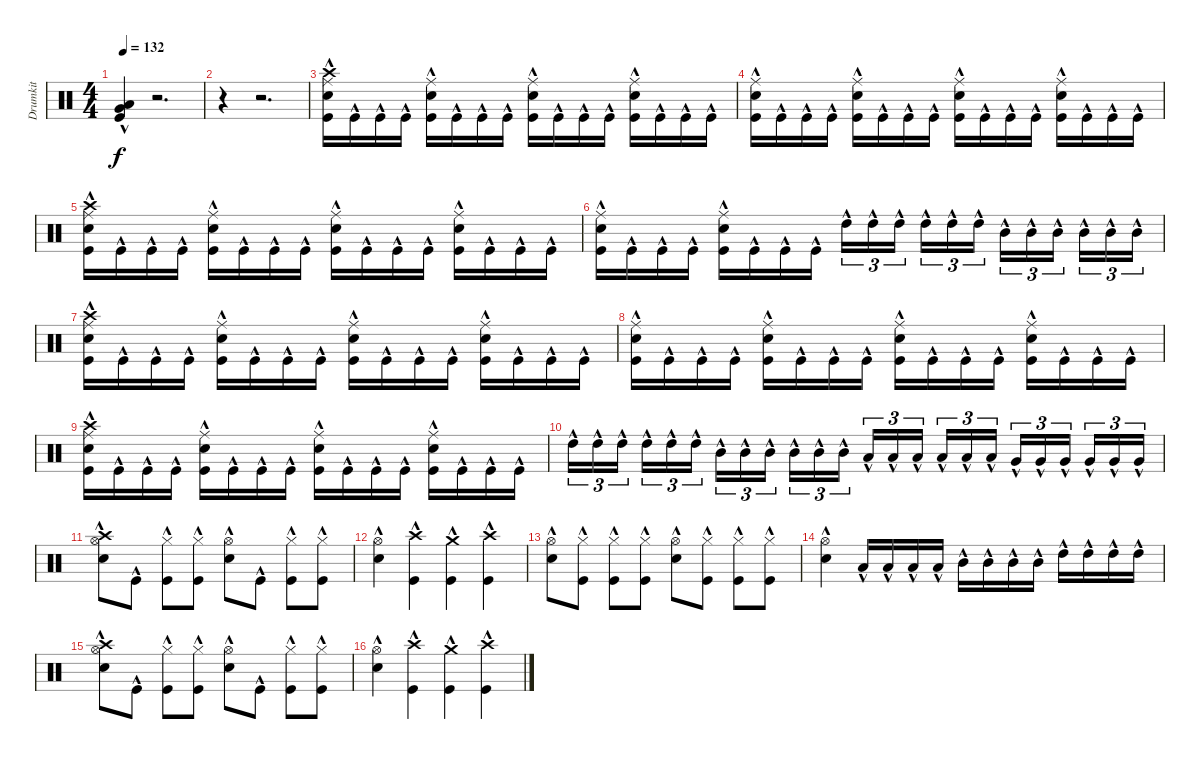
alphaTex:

\track ("Drumkit" "Drumkit") {instrument percussion}
\staff {score}
\articulation defaults
\ts (4 4)
\tempo 132
\clef neutral
\ks c
("Kick (hit)"{hac} "Very Low Tom (hit)"{hac} "Low Floor Tom (hit)"{hac}).4{dy f} r.2{d} |
r.4 r.2{d} |
("Crash high (hit)"{hac} "Snare (hit) 2"{hac} "Ride (middle)"{hac} "Kick (hit)"{hac}).16 "Kick (hit)"{hac}.16 "Kick (hit)"{hac}.16 "Kick (hit)"{hac}.16 ("Snare (hit) 2"{hac} "Ride (middle)"{hac} "Kick (hit)"{hac}).16 "Kick (hit)"{hac}.16 "Kick (hit)"{hac}.16 "Kick (hit)"{hac}.16 ("Snare (hit) 2"{hac} "Ride (middle)"{hac} "Kick (hit)"{hac}).16 "Kick (hit)"{hac}.16 "Kick (hit)"{hac}.16 "Kick (hit)"{hac}.16 ("Snare (hit) 2"{hac} "Ride (middle)"{hac} "Kick (hit)"{hac}).16 "Kick (hit)"{hac}.16 "Kick (hit)"{hac}.16 "Kick (hit)"{hac}.16 |
("Snare (hit) 2"{hac} "Ride (middle)"{hac} "Kick (hit)"{hac}).16 "Kick (hit)"{hac}.16 "Kick (hit)"{hac}.16 "Kick (hit)"{hac}.16 ("Snare (hit) 2"{hac} "Ride (middle)"{hac} "Kick (hit)"{hac}).16 "Kick (hit)"{hac}.16 "Kick (hit)"{hac}.16 "Kick (hit)"{hac}.16 ("Snare (hit) 2"{hac} "Ride (middle)"{hac} "Kick (hit)"{hac}).16 "Kick (hit)"{hac}.16 "Kick (hit)"{hac}.16 "Kick (hit)"{hac}.16 ("Snare (hit) 2"{hac} "Ride (middle)"{hac} "Kick (hit)"{hac}).16 "Kick (hit)"{hac}.16 "Kick (hit)"{hac}.16 "Kick (hit)"{hac}.16 |
("Crash high (hit)"{hac} "Snare (hit) 2"{hac} "Ride (middle)"{hac} "Kick (hit)"{hac}).16 "Kick (hit)"{hac}.16 "Kick (hit)"{hac}.16 "Kick (hit)"{hac}.16 ("Snare (hit) 2"{hac} "Ride (middle)"{hac} "Kick (hit)"{hac}).16 "Kick (hit)"{hac}.16 "Kick (hit)"{hac}.16 "Kick (hit)"{hac}.16 ("Snare (hit) 2"{hac} "Ride (middle)"{hac} "Kick (hit)"{hac}).16 "Kick (hit)"{hac}.16 "Kick (hit)"{hac}.16 "Kick (hit)"{hac}.16 ("Snare (hit) 2"{hac} "Ride (middle)"{hac} "Kick (hit)"{hac}).16 "Kick (hit)"{hac}.16 "Kick (hit)"{hac}.16 "Kick (hit)"{hac}.16 |
("Snare (hit) 2"{hac} "Ride (middle)"{hac} "Kick (hit)"{hac}).16 "Kick (hit)"{hac}.16 "Kick (hit)"{hac}.16 "Kick (hit)"{hac}.16 ("Snare (hit) 2"{hac} "Ride (middle)"{hac} "Kick (hit)"{hac}).16 "Kick (hit)"{hac}.16 "Kick (hit)"{hac}.16 "Kick (hit)"{hac}.16 "High Tom (hit)"{hac}.16{tu (3 2)} "High Tom (hit)"{hac}.16{tu (3 2)} "High Tom (hit)"{hac}.16{tu (3 2)} "High Tom (hit)"{hac}.16{tu (3 2)} "High Tom (hit)"{hac}.16{tu (3 2)} "High Tom (hit)"{hac}.16{tu (3 2)} "Mid Tom (hit)"{hac}.16{tu (3 2)} "Mid Tom (hit)"{hac}.16{tu (3 2)} "Mid Tom (hit)"{hac}.16{tu (3 2)} "Mid Tom (hit)"{hac}.16{tu (3 2)} "Mid Tom (hit)"{hac}.16{tu (3 2)} "Mid Tom (hit)"{hac}.16{tu (3 2)} |
("Crash high (hit)"{hac} "Snare (hit) 2"{hac} "Ride (middle)"{hac} "Kick (hit)"{hac}).16 "Kick (hit)"{hac}.16 "Kick (hit)"{hac}.16 "Kick (hit)"{hac}.16 ("Snare (hit) 2"{hac} "Ride (middle)"{hac} "Kick (hit)"{hac}).16 "Kick (hit)"{hac}.16 "Kick (hit)"{hac}.16 "Kick (hit)"{hac}.16 ("Snare (hit) 2"{hac} "Ride (middle)"{hac} "Kick (hit)"{hac}).16 "Kick (hit)"{hac}.16 "Kick (hit)"{hac}.16 "Kick (hit)"{hac}.16 ("Snare (hit) 2"{hac} "Ride (middle)"{hac} "Kick (hit)"{hac}).16 "Kick (hit)"{hac}.16 "Kick (hit)"{hac}.16 "Kick (hit)"{hac}.16 |
("Snare (hit) 2"{hac} "Ride (middle)"{hac} "Kick (hit)"{hac}).16 "Kick (hit)"{hac}.16 "Kick (hit)"{hac}.16 "Kick (hit)"{hac}.16 ("Snare (hit) 2"{hac} "Ride (middle)"{hac} "Kick (hit)"{hac}).16 "Kick (hit)"{hac}.16 "Kick (hit)"{hac}.16 "Kick (hit)"{hac}.16 ("Snare (hit) 2"{hac} "Ride (middle)"{hac} "Kick (hit)"{hac}).16 "Kick (hit)"{hac}.16 "Kick (hit)"{hac}.16 "Kick (hit)"{hac}.16 ("Snare (hit) 2"{hac} "Ride (middle)"{hac} "Kick (hit)"{hac}).16 "Kick (hit)"{hac}.16 "Kick (hit)"{hac}.16 "Kick (hit)"{hac}.16 |
("Crash high (hit)"{hac} "Snare (hit) 2"{hac} "Ride (middle)"{hac} "Kick (hit)"{hac}).16 "Kick (hit)"{hac}.16 "Kick (hit)"{hac}.16 "Kick (hit)"{hac}.16 ("Snare (hit) 2"{hac} "Ride (middle)"{hac} "Kick (hit)"{hac}).16 "Kick (hit)"{hac}.16 "Kick (hit)"{hac}.16 "Kick (hit)"{hac}.16 ("Snare (hit) 2"{hac} "Ride (middle)"{hac} "Kick (hit)"{hac}).16 "Kick (hit)"{hac}.16 "Kick (hit)"{hac}.16 "Kick (hit)"{hac}.16 ("Snare (hit) 2"{hac} "Ride (middle)"{hac} "Kick (hit)"{hac}).16 "Kick (hit)"{hac}.16 "Kick (hit)"{hac}.16 "Kick (hit)"{hac}.16 |
"High Tom (hit)"{hac}.16{tu (3 2)} "High Tom (hit)"{hac}.16{tu (3 2)} "High Tom (hit)"{hac}.16{tu (3 2)} "High Tom (hit)"{hac}.16{tu (3 2)} "High Tom (hit)"{hac}.16{tu (3 2)} "High Tom (hit)"{hac}.16{tu (3 2)} "Mid Tom (hit)"{hac}.16{tu (3 2)} "Mid Tom (hit)"{hac}.16{tu (3 2)} "Mid Tom (hit)"{hac}.16{tu (3 2)} "Mid Tom (hit)"{hac}.16{tu (3 2)} "Mid Tom (hit)"{hac}.16{tu (3 2)} "Mid Tom (hit)"{hac}.16{tu (3 2)} "Low Tom (hit)"{hac}.16{tu (3 2)} "Low Tom (hit)"{hac}.16{tu (3 2)} "Low Tom (hit)"{hac}.16{tu (3 2)} "Low Tom (hit)"{hac}.16{tu (3 2)} "Low Tom (hit)"{hac}.16{tu (3 2)} "Low Tom (hit)"{hac}.16{tu (3 2)} "Very Low Tom (hit)"{hac}.16{tu (3 2)} "Very Low Tom (hit)"{hac}.16{tu (3 2)} "Very Low Tom (hit)"{hac}.16{tu (3 2)} "Very Low Tom (hit)"{hac}.16{tu (3 2)} "Very Low Tom (hit)"{hac}.16{tu (3 2)} "Very Low Tom (hit)"{hac}.16{tu (3 2)} |
("Hi-Hat (open)"{hac} "Snare (hit) 2"{hac} "Crash high (hit)").8 "Kick (hit)"{hac}.8 ("Kick (hit)"{hac} "Hi-Hat (closed)").8 ("Kick (hit)"{hac} "Hi-Hat (closed)").8 ("Hi-Hat (open)"{hac} "Snare (hit) 2"{hac}).8 "Kick (hit)"{hac}.8 ("Kick (hit)"{hac} "Hi-Hat (closed)").8 ("Kick (hit)"{hac} "Hi-Hat (closed)").8 |
("Hi-Hat (open)"{hac} "Snare (hit) 2"{hac}).4 ("Crash high (hit)"{hac} "Kick (hit)"{hac}).4 ("Crash medium (hit)"{hac} "Kick (hit)"{hac}).4 ("Crash high (hit)"{hac} "Kick (hit)"{hac}).4 |
("Hi-Hat (open)"{hac} "Snare (hit) 2"{hac}).8 ("Kick (hit)"{hac} "Hi-Hat (closed)").8 ("Kick (hit)"{hac} "Hi-Hat (closed)").8 ("Kick (hit)"{hac} "Hi-Hat (closed)").8 ("Hi-Hat (open)"{hac} "Snare (hit) 2"{hac}).8 ("Kick (hit)"{hac} "Hi-Hat (closed)").8 ("Kick (hit)"{hac} "Hi-Hat (closed)").8 ("Kick (hit)"{hac} "Hi-Hat (closed)").8 |
("Hi-Hat (open)"{hac} "Snare (hit) 2"{hac}).4 "Low Tom (hit)"{hac}.16 "Low Tom (hit)"{hac}.16 "Low Tom (hit)"{hac}.16 "Low Tom (hit)"{hac}.16 "Mid Tom (hit)"{hac}.16 "Mid Tom (hit)"{hac}.16 "Mid Tom (hit)"{hac}.16 "Mid Tom (hit)"{hac}.16 "High Tom (hit)"{hac}.16 "High Tom (hit)"{hac}.16 "High Tom (hit)"{hac}.16 "High Tom (hit)"{hac}.16 |
("Hi-Hat (open)"{hac} "Snare (hit) 2"{hac} "Crash high (hit)").8 "Kick (hit)"{hac}.8 ("Kick (hit)"{hac} "Hi-Hat (closed)").8 ("Kick (hit)"{hac} "Hi-Hat (closed)").8 ("Hi-Hat (open)"{hac} "Snare (hit) 2"{hac}).8 "Kick (hit)"{hac}.8 ("Kick (hit)"{hac} "Hi-Hat (closed)").8 ("Kick (hit)"{hac} "Hi-Hat (closed)").8 |
("Hi-Hat (open)"{hac} "Snare (hit) 2"{hac}).4 ("Crash high (hit)"{hac} "Kick (hit)"{hac}).4 ("Crash medium (hit)"{hac} "Kick (hit)"{hac}).4 ("Crash high (hit)"{hac} "Kick (hit)"{hac}).4
